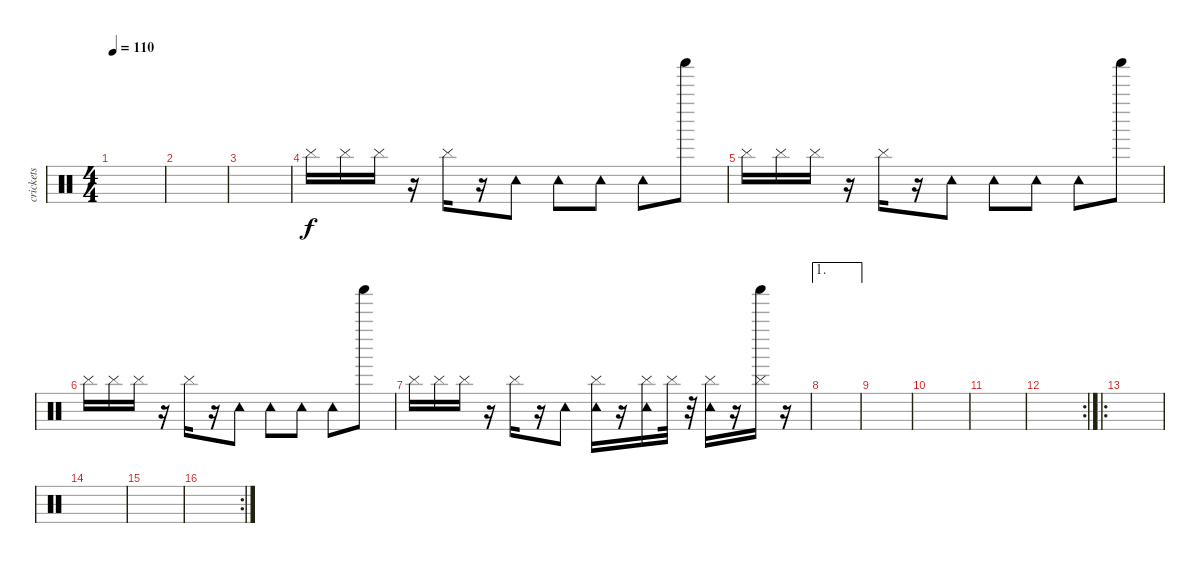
\track ("crickets" "crickets") {instrument percussion}
\staff {score}
\articulation defaults
\ts (4 4)
\tempo 110
\clef neutral
\ks c
|
|
|
"Cymbal (hit)".16{dy f} "Cymbal (hit)".16 "Cymbal (hit)".16 r.16 "Cymbal (hit)".16 r.16 "Tambourine (hit)".8 "Tambourine (hit)".8 "Tambourine (hit)".8 "Tambourine (hit)".8 "Shaker (hit)".8 |
"Cymbal (hit)".16 "Cymbal (hit)".16 "Cymbal (hit)".16 r.16 "Cymbal (hit)".16 r.16 "Tambourine (hit)".8 "Tambourine (hit)".8 "Tambourine (hit)".8 "Tambourine (hit)".8 "Shaker (hit)".8 |
"Cymbal (hit)".16 "Cymbal (hit)".16 "Cymbal (hit)".16 r.16 "Cymbal (hit)".16 r.16 "Tambourine (hit)".8 "Tambourine (hit)".8 "Tambourine (hit)".8 "Tambourine (hit)".8 "Shaker (hit)".8 |
"Cymbal (hit)".16 "Cymbal (hit)".16 "Cymbal (hit)".16 r.16 "Cymbal (hit)".16 r.16 "Tambourine (hit)".8 ("Tambourine (hit)" "Cymbal (hit)").16 r.16 ("Tambourine (hit)" "Cymbal (hit)").16 "Cymbal (hit)".32 r.32 ("Tambourine (hit)" "Cymbal (hit)").16 r.16 ("Shaker (hit)" "Cymbal (hit)").16 r.16 |
\ae 1
|
|
|
|
\rc 2
|
\ro
|
|
|
\rc 2
